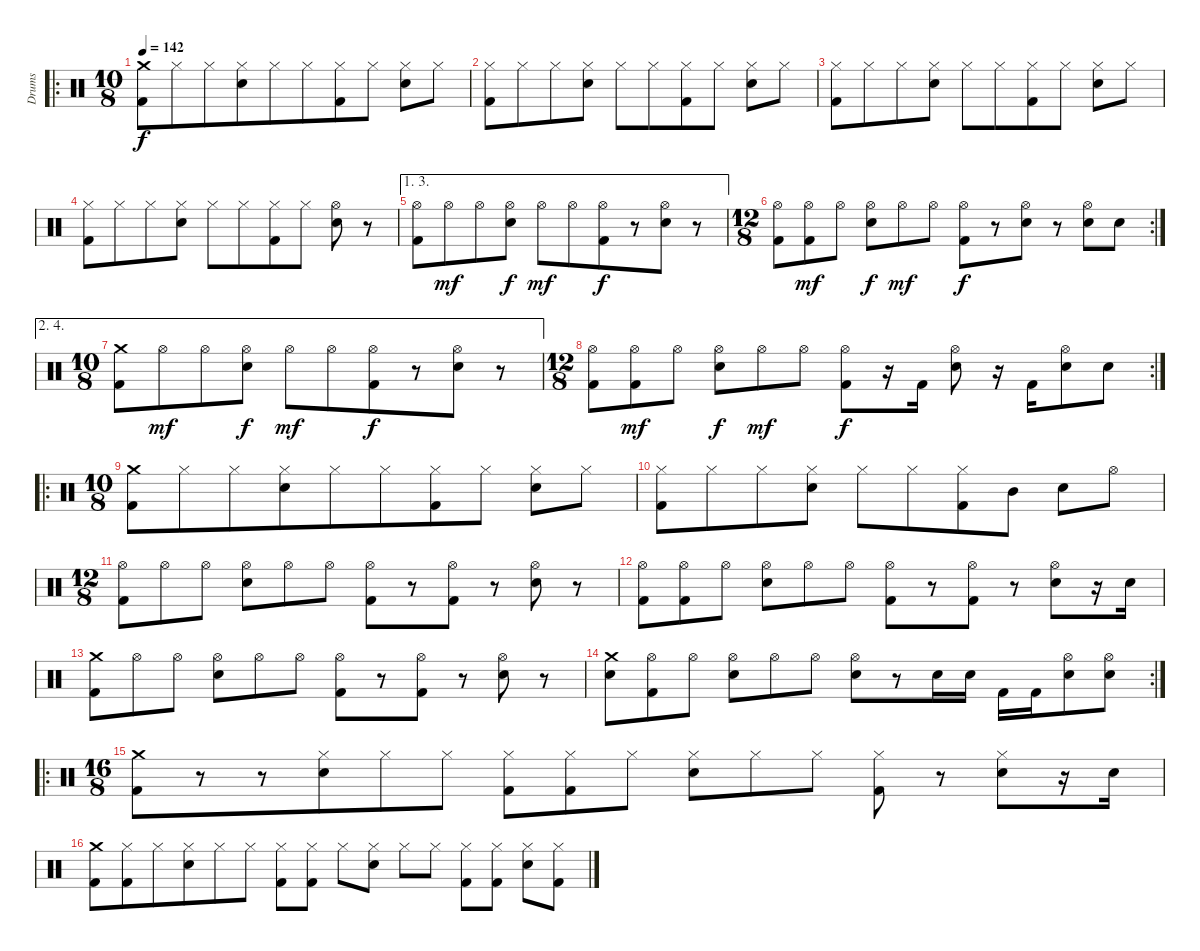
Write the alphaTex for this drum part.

\track ("Drums" "Drums") {instrument percussion}
\staff {score}
\articulation defaults
\ro
\ts (10 8)
\tempo 142
\clef neutral
\ks c
("Crash medium (hit)" "Kick (hit) 2").8{dy f beam merge} "Hi-Hat (closed)".8{beam merge} "Hi-Hat (closed)".8 ("Hi-Hat (closed)" "Electric Snare (hit)").8{beam merge} "Hi-Hat (closed)".8{beam merge} "Hi-Hat (closed)".8 ("Hi-Hat (closed)" "Kick (hit) 2").8{beam merge} "Hi-Hat (closed)".8{beam split} ("Hi-Hat (closed)" "Electric Snare (hit)").8{beam merge} "Hi-Hat (closed)".8 |
("Hi-Hat (closed)" "Kick (hit) 2").8 "Hi-Hat (closed)".8 "Hi-Hat (closed)".8 ("Hi-Hat (closed)" "Electric Snare (hit)").8 "Hi-Hat (closed)".8 "Hi-Hat (closed)".8 ("Hi-Hat (closed)" "Kick (hit) 2").8{beam merge} "Hi-Hat (closed)".8{beam split} ("Hi-Hat (closed)" "Electric Snare (hit)").8{beam merge} "Hi-Hat (closed)".8 |
("Hi-Hat (closed)" "Kick (hit) 2").8 "Hi-Hat (closed)".8 "Hi-Hat (closed)".8 ("Hi-Hat (closed)" "Electric Snare (hit)").8 "Hi-Hat (closed)".8 "Hi-Hat (closed)".8 ("Hi-Hat (closed)" "Kick (hit) 2").8{beam merge} "Hi-Hat (closed)".8{beam split} ("Hi-Hat (closed)" "Electric Snare (hit)").8{beam merge} "Hi-Hat (closed)".8 |
("Hi-Hat (closed)" "Kick (hit) 2").8 "Hi-Hat (closed)".8 "Hi-Hat (closed)".8 ("Hi-Hat (closed)" "Electric Snare (hit)").8 "Hi-Hat (closed)".8 "Hi-Hat (closed)".8 ("Hi-Hat (closed)" "Kick (hit) 2").8{beam merge} "Hi-Hat (closed)".8{beam split} ("Hi-Hat (open)" "Electric Snare (hit)").8 r.8 |
\ae (1 3)
("Hi-Hat (open)" "Kick (hit) 2").8 "Hi-Hat (open)".8{dy mf} "Hi-Hat (open)".8 ("Hi-Hat (open)" "Electric Snare (hit)").8{dy f} "Hi-Hat (open)".8{dy mf} "Hi-Hat (open)".8 ("Hi-Hat (open)" "Kick (hit) 2").8{dy f beam merge} r.8{beam split} ("Hi-Hat (open)" "Electric Snare (hit)").8 r.8 |
\rc 2
\ts (12 8)
("Hi-Hat (open)" "Kick (hit) 2").8 ("Hi-Hat (open)" "Kick (hit) 2").8{dy mf} "Hi-Hat (open)".8 ("Hi-Hat (open)" "Electric Snare (hit)").8{dy f} "Hi-Hat (open)".8{dy mf} "Hi-Hat (open)".8 ("Hi-Hat (open)" "Kick (hit) 2").8{dy f beam merge} r.8{beam split} ("Hi-Hat (open)" "Electric Snare (hit)").8 r.8 ("Hi-Hat (open)" "Electric Snare (hit)").8 "Electric Snare (hit)".8 |
\ae (2 4)
\ts (10 8)
("Crash medium (hit)" "Kick (hit) 2").8 "Hi-Hat (open)".8{dy mf} "Hi-Hat (open)".8 ("Hi-Hat (open)" "Electric Snare (hit)").8{dy f} "Hi-Hat (open)".8{dy mf} "Hi-Hat (open)".8 ("Hi-Hat (open)" "Kick (hit) 2").8{dy f beam merge} r.8{beam split} ("Hi-Hat (open)" "Electric Snare (hit)").8 r.8 |
\rc 2
\ts (12 8)
("Hi-Hat (open)" "Kick (hit) 2").8 ("Hi-Hat (open)" "Kick (hit) 2").8{dy mf} "Hi-Hat (open)".8 ("Hi-Hat (open)" "Electric Snare (hit)").8{dy f} "Hi-Hat (open)".8{dy mf} "Hi-Hat (open)".8 ("Hi-Hat (open)" "Kick (hit) 2").8{dy f} r.16{beam merge} "Kick (hit) 2".16{beam split} ("Hi-Hat (open)" "Electric Snare (hit)").8 r.16 "Kick (hit) 2".16 ("Hi-Hat (open)" "Electric Snare (hit)").8 "Electric Snare (hit)".8 |
\ro
\ts (10 8)
("Crash medium (hit)" "Kick (hit) 2").8{beam merge} "Hi-Hat (closed)".8{beam merge} "Hi-Hat (closed)".8 ("Hi-Hat (closed)" "Electric Snare (hit)").8{beam merge} "Hi-Hat (closed)".8{beam merge} "Hi-Hat (closed)".8 ("Hi-Hat (closed)" "Kick (hit) 2").8{beam merge} "Hi-Hat (closed)".8{beam split} ("Hi-Hat (closed)" "Electric Snare (hit)").8{beam merge} "Hi-Hat (closed)".8 |
("Hi-Hat (closed)" "Kick (hit) 2").8 "Hi-Hat (closed)".8 "Hi-Hat (closed)".8 ("Hi-Hat (closed)" "Electric Snare (hit)").8 "Hi-Hat (closed)".8 "Hi-Hat (closed)".8 ("Hi-Hat (closed)" "Kick (hit) 2").8{beam merge} "Mid Tom (hit)".8{beam split} "Electric Snare (hit)".8 "Hi-Hat (open)".8 |
\ts (12 8)
("Hi-Hat (open)" "Kick (hit) 2").8 "Hi-Hat (open)".8 "Hi-Hat (open)".8 ("Hi-Hat (open)" "Electric Snare (hit)").8 "Hi-Hat (open)".8 "Hi-Hat (open)".8 ("Hi-Hat (open)" "Kick (hit) 2").8{beam merge} r.8{beam split} ("Hi-Hat (open)" "Kick (hit) 2").8 r.8 ("Hi-Hat (open)" "Electric Snare (hit)").8 r.8 |
("Hi-Hat (open)" "Kick (hit) 2").8 ("Hi-Hat (open)" "Kick (hit) 2").8 "Hi-Hat (open)".8 ("Hi-Hat (open)" "Electric Snare (hit)").8 "Hi-Hat (open)".8 "Hi-Hat (open)".8 ("Hi-Hat (open)" "Kick (hit) 2").8{beam merge} r.8{beam split} ("Hi-Hat (open)" "Kick (hit) 2").8 r.8 ("Hi-Hat (open)" "Electric Snare (hit)").8 r.16 "Electric Snare (hit)".16 |
("Crash medium (hit)" "Kick (hit) 2").8 "Hi-Hat (open)".8 "Hi-Hat (open)".8 ("Hi-Hat (open)" "Electric Snare (hit)").8 "Hi-Hat (open)".8 "Hi-Hat (open)".8 ("Hi-Hat (open)" "Kick (hit) 2").8{beam merge} r.8{beam split} ("Hi-Hat (open)" "Kick (hit) 2").8 r.8 ("Hi-Hat (open)" "Electric Snare (hit)").8 r.8 |
\rc 2
("Crash medium (hit)" "Electric Snare (hit)").8 ("Hi-Hat (open)" "Kick (hit) 2").8 "Hi-Hat (open)".8 ("Hi-Hat (open)" "Electric Snare (hit)").8 "Hi-Hat (open)".8 "Hi-Hat (open)".8 ("Hi-Hat (open)" "Electric Snare (hit)").8{beam merge} r.8 "Electric Snare (hit)".16 "Electric Snare (hit)".16 "Kick (hit) 2".16 "Kick (hit) 2".16 ("Hi-Hat (open)" "Electric Snare (hit)").8 ("Hi-Hat (open)" "Electric Snare (hit)").8 |
\ro
\ts (16 8)
("Crash medium (hit)" "Kick (hit) 2").8{beam merge} r.8{beam merge} r.8 ("Hi-Hat (closed)" "Electric Snare (hit)").8{beam merge} "Hi-Hat (closed)".8{beam merge} "Hi-Hat (closed)".8 ("Hi-Hat (closed)" "Kick (hit) 2").8{beam merge} ("Hi-Hat (closed)" "Kick (hit) 2").8{beam merge} "Hi-Hat (closed)".8{beam split} ("Hi-Hat (closed)" "Electric Snare (hit)").8{beam merge} "Hi-Hat (closed)".8{beam merge} "Hi-Hat (closed)".8 ("Hi-Hat (closed)" "Kick (hit) 2").8 r.8 ("Hi-Hat (closed)" "Electric Snare (hit)").8 r.16 "Electric Snare (hit)".16 |
("Crash medium (hit)" "Kick (hit) 2").8{beam merge} ("Hi-Hat (closed)" "Kick (hit) 2").8{beam merge} "Hi-Hat (closed)".8 ("Hi-Hat (closed)" "Electric Snare (hit)").8{beam merge} "Hi-Hat (closed)".8{beam merge} "Hi-Hat (closed)".8 ("Hi-Hat (closed)" "Kick (hit) 2").8{beam merge} ("Hi-Hat (closed)" "Kick (hit) 2").8{beam split} "Hi-Hat (closed)".8{beam merge} ("Hi-Hat (closed)" "Electric Snare (hit)").8 "Hi-Hat (closed)".8 "Hi-Hat (closed)".8 ("Hi-Hat (closed)" "Kick (hit) 2").8 ("Hi-Hat (closed)" "Kick (hit) 2").8 ("Hi-Hat (closed)" "Electric Snare (hit)").8 ("Hi-Hat (closed)" "Kick (hit) 2").8
